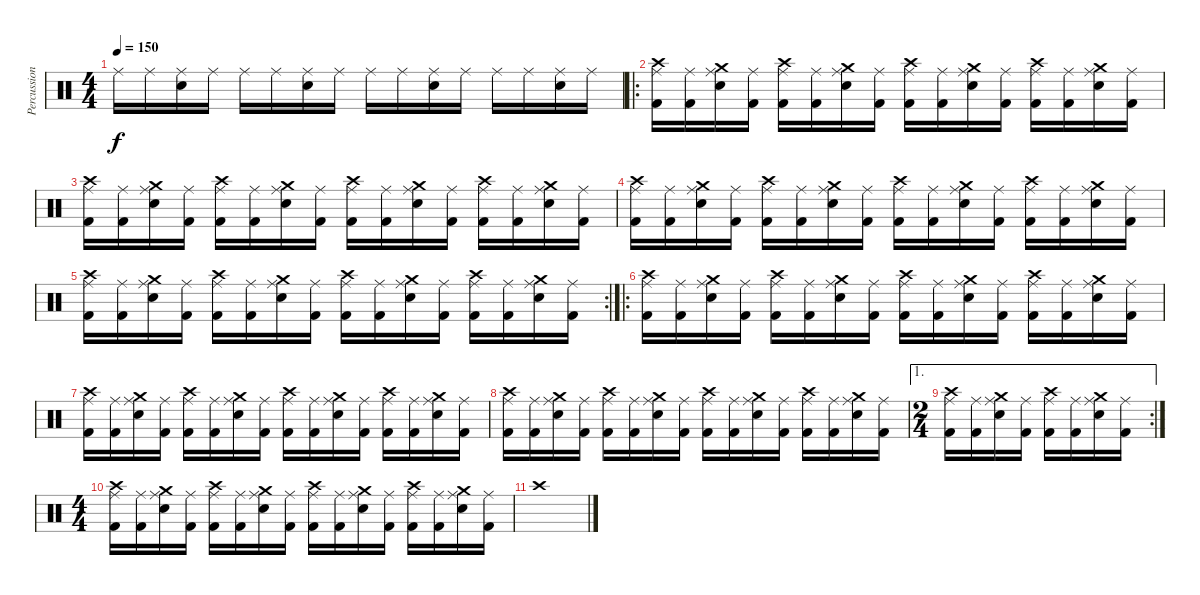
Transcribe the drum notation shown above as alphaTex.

\track ("Percussions" "Percussion") {instrument percussion}
\staff {score}
\articulation defaults
\ts (4 4)
\tempo 150
\clef neutral
\ks c "Ride (middle)".16{dy f} "Ride (middle)".16
("Snare (hit) 2" "Ride (middle)").16 "Ride (middle)".16 "Ride (middle)".16 "Ride (middle)".16 ("Snare (hit) 2" "Ride (middle)").16 "Ride (middle)".16 "Ride (middle)".16 "Ride (middle)".16 ("Snare (hit) 2" "Ride (middle)").16 "Ride (middle)".16 "Ride (middle)".16 "Ride (middle)".16 ("Snare (hit) 2" "Ride (middle)").16 "Ride (middle)".16 |
\ro
("Crash high (hit)" "Kick (hit) 2" "Ride (middle)").16 ("Kick (hit) 2" "Ride (middle)").16 ("Crash medium (hit)" "Snare (hit) 2" "Ride (middle)").16 ("Kick (hit) 2" "Ride (middle)").16 ("Crash high (hit)" "Kick (hit) 2" "Ride (middle)").16 ("Kick (hit) 2" "Ride (middle)").16 ("Crash medium (hit)" "Snare (hit) 2" "Ride (middle)").16 ("Kick (hit) 2" "Ride (middle)").16 ("Crash high (hit)" "Kick (hit) 2" "Ride (middle)").16 ("Kick (hit) 2" "Ride (middle)").16 ("Crash medium (hit)" "Snare (hit) 2" "Ride (middle)").16 ("Kick (hit) 2" "Ride (middle)").16 ("Crash high (hit)" "Kick (hit) 2" "Ride (middle)").16 ("Kick (hit) 2" "Ride (middle)").16 ("Crash medium (hit)" "Snare (hit) 2" "Ride (middle)").16 ("Kick (hit) 2" "Ride (middle)").16 |
("Crash high (hit)" "Kick (hit) 2" "Ride (middle)").16 ("Kick (hit) 2" "Ride (middle)").16 ("Crash medium (hit)" "Snare (hit) 2" "Ride (middle)").16 ("Kick (hit) 2" "Ride (middle)").16 ("Crash high (hit)" "Kick (hit) 2" "Ride (middle)").16 ("Kick (hit) 2" "Ride (middle)").16 ("Crash medium (hit)" "Snare (hit) 2" "Ride (middle)").16 ("Kick (hit) 2" "Ride (middle)").16 ("Crash high (hit)" "Kick (hit) 2" "Ride (middle)").16 ("Kick (hit) 2" "Ride (middle)").16 ("Crash medium (hit)" "Snare (hit) 2" "Ride (middle)").16 ("Kick (hit) 2" "Ride (middle)").16 ("Crash high (hit)" "Kick (hit) 2" "Ride (middle)").16 ("Kick (hit) 2" "Ride (middle)").16 ("Crash medium (hit)" "Snare (hit) 2" "Ride (middle)").16 ("Kick (hit) 2" "Ride (middle)").16 |
("Crash high (hit)" "Kick (hit) 2" "Ride (middle)").16 ("Kick (hit) 2" "Ride (middle)").16 ("Crash medium (hit)" "Snare (hit) 2" "Ride (middle)").16 ("Kick (hit) 2" "Ride (middle)").16 ("Crash high (hit)" "Kick (hit) 2" "Ride (middle)").16 ("Kick (hit) 2" "Ride (middle)").16 ("Crash medium (hit)" "Snare (hit) 2" "Ride (middle)").16 ("Kick (hit) 2" "Ride (middle)").16 ("Crash high (hit)" "Kick (hit) 2" "Ride (middle)").16 ("Kick (hit) 2" "Ride (middle)").16 ("Crash medium (hit)" "Snare (hit) 2" "Ride (middle)").16 ("Kick (hit) 2" "Ride (middle)").16 ("Crash high (hit)" "Kick (hit) 2" "Ride (middle)").16 ("Kick (hit) 2" "Ride (middle)").16 ("Crash medium (hit)" "Snare (hit) 2" "Ride (middle)").16 ("Kick (hit) 2" "Ride (middle)").16 |
\rc 2
("Crash high (hit)" "Kick (hit) 2" "Ride (middle)").16 ("Kick (hit) 2" "Ride (middle)").16 ("Crash medium (hit)" "Snare (hit) 2" "Ride (middle)").16 ("Kick (hit) 2" "Ride (middle)").16 ("Crash high (hit)" "Kick (hit) 2" "Ride (middle)").16 ("Kick (hit) 2" "Ride (middle)").16 ("Crash medium (hit)" "Snare (hit) 2" "Ride (middle)").16 ("Kick (hit) 2" "Ride (middle)").16 ("Crash high (hit)" "Kick (hit) 2" "Ride (middle)").16 ("Kick (hit) 2" "Ride (middle)").16 ("Crash medium (hit)" "Snare (hit) 2" "Ride (middle)").16 ("Kick (hit) 2" "Ride (middle)").16 ("Crash high (hit)" "Kick (hit) 2" "Ride (middle)").16 ("Kick (hit) 2" "Ride (middle)").16 ("Crash medium (hit)" "Snare (hit) 2" "Ride (middle)").16 ("Kick (hit) 2" "Ride (middle)").16 |
\ro
("Crash high (hit)" "Kick (hit) 2" "Ride (middle)").16 ("Kick (hit) 2" "Ride (middle)").16 ("Crash medium (hit)" "Snare (hit) 2" "Ride (middle)").16 ("Kick (hit) 2" "Ride (middle)").16 ("Crash high (hit)" "Kick (hit) 2" "Ride (middle)").16 ("Kick (hit) 2" "Ride (middle)").16 ("Crash medium (hit)" "Snare (hit) 2" "Ride (middle)").16 ("Kick (hit) 2" "Ride (middle)").16 ("Crash high (hit)" "Kick (hit) 2" "Ride (middle)").16 ("Kick (hit) 2" "Ride (middle)").16 ("Crash medium (hit)" "Snare (hit) 2" "Ride (middle)").16 ("Kick (hit) 2" "Ride (middle)").16 ("Crash high (hit)" "Kick (hit) 2" "Ride (middle)").16 ("Kick (hit) 2" "Ride (middle)").16 ("Crash medium (hit)" "Snare (hit) 2" "Ride (middle)").16 ("Kick (hit) 2" "Ride (middle)").16 |
("Crash high (hit)" "Kick (hit) 2" "Ride (middle)").16 ("Kick (hit) 2" "Ride (middle)").16 ("Crash medium (hit)" "Snare (hit) 2" "Ride (middle)").16 ("Kick (hit) 2" "Ride (middle)").16 ("Crash high (hit)" "Kick (hit) 2" "Ride (middle)").16 ("Kick (hit) 2" "Ride (middle)").16 ("Crash medium (hit)" "Snare (hit) 2" "Ride (middle)").16 ("Kick (hit) 2" "Ride (middle)").16 ("Crash high (hit)" "Kick (hit) 2" "Ride (middle)").16 ("Kick (hit) 2" "Ride (middle)").16 ("Crash medium (hit)" "Snare (hit) 2" "Ride (middle)").16 ("Kick (hit) 2" "Ride (middle)").16 ("Crash high (hit)" "Kick (hit) 2" "Ride (middle)").16 ("Kick (hit) 2" "Ride (middle)").16 ("Crash medium (hit)" "Snare (hit) 2" "Ride (middle)").16 ("Kick (hit) 2" "Ride (middle)").16 |
("Crash high (hit)" "Kick (hit) 2" "Ride (middle)").16 ("Kick (hit) 2" "Ride (middle)").16 ("Crash medium (hit)" "Snare (hit) 2" "Ride (middle)").16 ("Kick (hit) 2" "Ride (middle)").16 ("Crash high (hit)" "Kick (hit) 2" "Ride (middle)").16 ("Kick (hit) 2" "Ride (middle)").16 ("Crash medium (hit)" "Snare (hit) 2" "Ride (middle)").16 ("Kick (hit) 2" "Ride (middle)").16 ("Crash high (hit)" "Kick (hit) 2" "Ride (middle)").16 ("Kick (hit) 2" "Ride (middle)").16 ("Crash medium (hit)" "Snare (hit) 2" "Ride (middle)").16 ("Kick (hit) 2" "Ride (middle)").16 ("Crash high (hit)" "Kick (hit) 2" "Ride (middle)").16 ("Kick (hit) 2" "Ride (middle)").16 ("Crash medium (hit)" "Snare (hit) 2" "Ride (middle)").16 ("Kick (hit) 2" "Ride (middle)").16 |
\ae 1
\rc 2
\ts (2 4)
("Crash high (hit)" "Kick (hit) 2" "Ride (middle)").16 ("Kick (hit) 2" "Ride (middle)").16 ("Crash medium (hit)" "Snare (hit) 2" "Ride (middle)").16 ("Kick (hit) 2" "Ride (middle)").16 ("Crash high (hit)" "Kick (hit) 2" "Ride (middle)").16 ("Kick (hit) 2" "Ride (middle)").16 ("Crash medium (hit)" "Snare (hit) 2" "Ride (middle)").16 ("Kick (hit) 2" "Ride (middle)").16 |
\ts (4 4)
("Crash high (hit)" "Kick (hit) 2" "Ride (middle)").16 ("Kick (hit) 2" "Ride (middle)").16 ("Crash medium (hit)" "Snare (hit) 2" "Ride (middle)").16 ("Kick (hit) 2" "Ride (middle)").16 ("Crash high (hit)" "Kick (hit) 2" "Ride (middle)").16 ("Kick (hit) 2" "Ride (middle)").16 ("Crash medium (hit)" "Snare (hit) 2" "Ride (middle)").16 ("Kick (hit) 2" "Ride (middle)").16 ("Crash high (hit)" "Kick (hit) 2" "Ride (middle)").16 ("Kick (hit) 2" "Ride (middle)").16 ("Crash medium (hit)" "Snare (hit) 2" "Ride (middle)").16 ("Kick (hit) 2" "Ride (middle)").16 ("Crash high (hit)" "Kick (hit) 2" "Ride (middle)").16 ("Kick (hit) 2" "Ride (middle)").16 ("Crash medium (hit)" "Snare (hit) 2" "Ride (middle)").16 ("Kick (hit) 2" "Ride (middle)").16 |
"Crash high (hit)".1
